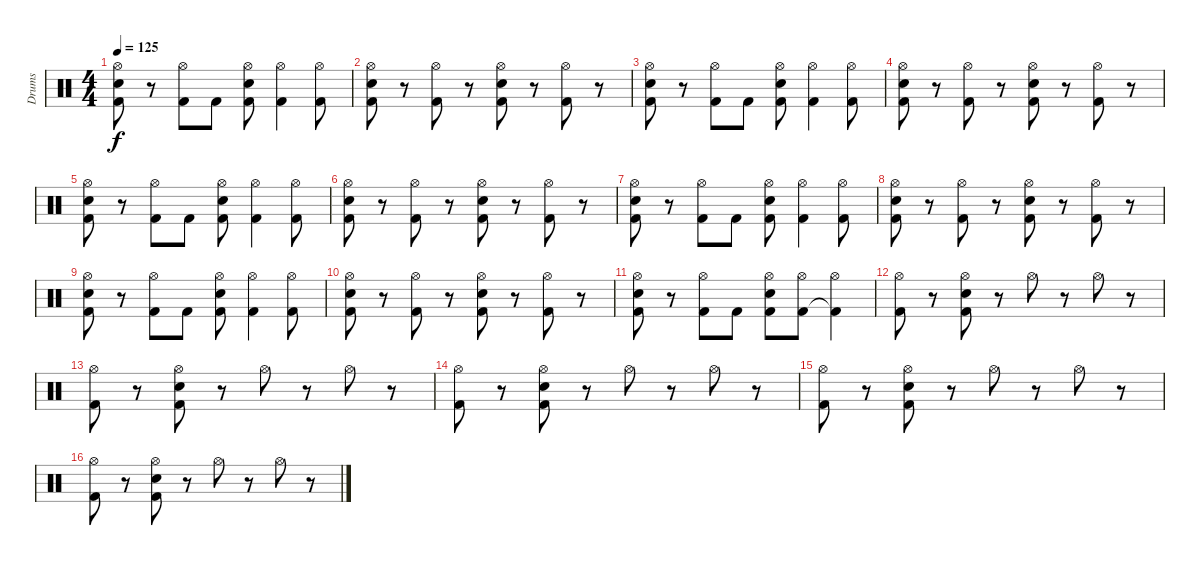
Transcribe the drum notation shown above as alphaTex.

\track ("Drums" "Drums") {instrument percussion}
\staff {score}
\articulation defaults
\ts (4 4)
\tempo 125
\clef neutral
\ks c
("Kick (hit) 2" "Snare (hit) 2" "Hi-Hat (open)").8{dy f} r.8 ("Kick (hit) 2" "Hi-Hat (open)").8 "Kick (hit) 2".8 ("Kick (hit) 2" "Snare (hit) 2" "Hi-Hat (open)").8 ("Kick (hit) 2" "Hi-Hat (open)").4 ("Kick (hit) 2" "Hi-Hat (open)").8 |
("Kick (hit) 2" "Snare (hit) 2" "Hi-Hat (open)").8 r.8 ("Kick (hit) 2" "Hi-Hat (open)").8 r.8 ("Kick (hit) 2" "Snare (hit) 2" "Hi-Hat (open)").8 r.8 ("Kick (hit) 2" "Hi-Hat (open)").8 r.8 |
("Kick (hit) 2" "Snare (hit) 2" "Hi-Hat (open)").8 r.8 ("Kick (hit) 2" "Hi-Hat (open)").8 "Kick (hit) 2".8 ("Kick (hit) 2" "Snare (hit) 2" "Hi-Hat (open)").8 ("Kick (hit) 2" "Hi-Hat (open)").4 ("Kick (hit) 2" "Hi-Hat (open)").8 |
("Kick (hit) 2" "Snare (hit) 2" "Hi-Hat (open)").8 r.8 ("Kick (hit) 2" "Hi-Hat (open)").8 r.8 ("Kick (hit) 2" "Snare (hit) 2" "Hi-Hat (open)").8 r.8 ("Kick (hit) 2" "Hi-Hat (open)").8 r.8 |
("Kick (hit) 2" "Snare (hit) 2" "Hi-Hat (open)").8 r.8 ("Kick (hit) 2" "Hi-Hat (open)").8 "Kick (hit) 2".8 ("Kick (hit) 2" "Snare (hit) 2" "Hi-Hat (open)").8 ("Kick (hit) 2" "Hi-Hat (open)").4 ("Kick (hit) 2" "Hi-Hat (open)").8 |
("Kick (hit) 2" "Snare (hit) 2" "Hi-Hat (open)").8 r.8 ("Kick (hit) 2" "Hi-Hat (open)").8 r.8 ("Kick (hit) 2" "Snare (hit) 2" "Hi-Hat (open)").8 r.8 ("Kick (hit) 2" "Hi-Hat (open)").8 r.8 |
("Kick (hit) 2" "Snare (hit) 2" "Hi-Hat (open)").8 r.8 ("Kick (hit) 2" "Hi-Hat (open)").8 "Kick (hit) 2".8 ("Kick (hit) 2" "Snare (hit) 2" "Hi-Hat (open)").8 ("Kick (hit) 2" "Hi-Hat (open)").4 ("Kick (hit) 2" "Hi-Hat (open)").8 |
("Kick (hit) 2" "Snare (hit) 2" "Hi-Hat (open)").8 r.8 ("Kick (hit) 2" "Hi-Hat (open)").8 r.8 ("Kick (hit) 2" "Snare (hit) 2" "Hi-Hat (open)").8 r.8 ("Kick (hit) 2" "Hi-Hat (open)").8 r.8 |
("Kick (hit) 2" "Snare (hit) 2" "Hi-Hat (open)").8 r.8 ("Kick (hit) 2" "Hi-Hat (open)").8 "Kick (hit) 2".8 ("Kick (hit) 2" "Snare (hit) 2" "Hi-Hat (open)").8 ("Kick (hit) 2" "Hi-Hat (open)").4 ("Kick (hit) 2" "Hi-Hat (open)").8 |
("Kick (hit) 2" "Snare (hit) 2" "Hi-Hat (open)").8 r.8 ("Kick (hit) 2" "Hi-Hat (open)").8 r.8 ("Kick (hit) 2" "Snare (hit) 2" "Hi-Hat (open)").8 r.8 ("Kick (hit) 2" "Hi-Hat (open)").8 r.8 |
("Kick (hit) 2" "Snare (hit) 2" "Hi-Hat (open)").8 r.8 ("Kick (hit) 2" "Hi-Hat (open)").8 "Kick (hit) 2".8 ("Kick (hit) 2" "Snare (hit) 2" "Hi-Hat (open)").8 ("Kick (hit) 2" "Hi-Hat (open)").8 ("Kick (hit) 2"{t} "Hi-Hat (open)").4 |
("Kick (hit) 2" "Hi-Hat (open)").8 r.8 ("Kick (hit) 2" "Snare (hit) 2" "Hi-Hat (open)").8 r.8 "Hi-Hat (open)".8 r.8 "Hi-Hat (open)".8 r.8 |
("Kick (hit) 2" "Hi-Hat (open)").8 r.8 ("Kick (hit) 2" "Snare (hit) 2" "Hi-Hat (open)").8 r.8 "Hi-Hat (open)".8 r.8 "Hi-Hat (open)".8 r.8 |
("Kick (hit) 2" "Hi-Hat (open)").8 r.8 ("Kick (hit) 2" "Snare (hit) 2" "Hi-Hat (open)").8 r.8 "Hi-Hat (open)".8 r.8 "Hi-Hat (open)".8 r.8 |
("Kick (hit) 2" "Hi-Hat (open)").8 r.8 ("Kick (hit) 2" "Snare (hit) 2" "Hi-Hat (open)").8 r.8 "Hi-Hat (open)".8 r.8 "Hi-Hat (open)".8 r.8 |
("Kick (hit) 2" "Hi-Hat (open)").8 r.8 ("Kick (hit) 2" "Snare (hit) 2" "Hi-Hat (open)").8 r.8 "Hi-Hat (open)".8 r.8 "Hi-Hat (open)".8 r.8
